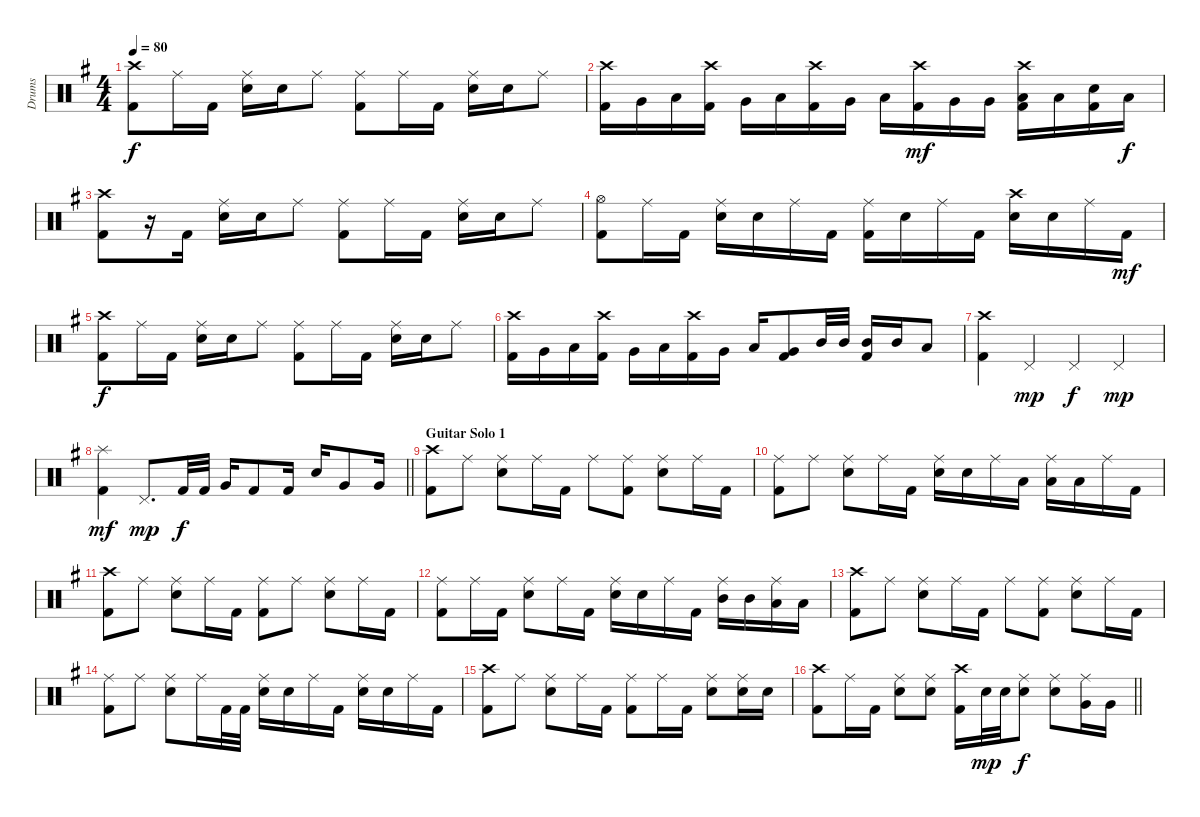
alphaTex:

\track ("Drums" "Drums") {instrument percussion}
\staff {score}
\articulation defaults
\ts (4 4)
\tempo 80
\clef neutral
\ks g
("Crash high (hit)" "Kick (hit) 2").8{dy f} "Ride (middle)".16 "Kick (hit) 2".16 ("Ride (middle)" "Electric Snare (hit)").16 "Electric Snare (hit)".16 "Ride (middle)".8 ("Ride (middle)" "Kick (hit) 2").8 "Ride (middle)".16 "Kick (hit) 2".16 ("Ride (middle)" "Electric Snare (hit)").16 "Electric Snare (hit)".16 "Ride (middle)".8 |
("Crash high (hit)" "Kick (hit) 2").16 "Very Low Tom (hit)".16 "Low Tom (hit)".16 ("Crash high (hit)" "Kick (hit) 2").16 "Very Low Tom (hit)".16 "Low Tom (hit)".16 ("Crash high (hit)" "Kick (hit) 2").16 "Very Low Tom (hit)".16 "Low Tom (hit)".16 ("Crash high (hit)" "Kick (hit) 2").16{dy mf} "Very Low Tom (hit)".16 "Very Low Tom (hit)".16 ("Crash high (hit)" "Low Tom (hit)" "Kick (hit) 2").16 "Low Tom (hit)".16 ("Electric Snare (hit)" "Kick (hit) 2").16 "Low Tom (hit)".16{dy f} |
("Crash high (hit)" "Kick (hit) 2").8 r.16 "Kick (hit) 2".16 ("Ride (middle)" "Electric Snare (hit)").16 "Electric Snare (hit)".16 "Ride (middle)".8 ("Ride (middle)" "Kick (hit) 2").8 "Ride (middle)".16 "Kick (hit) 2".16 ("Ride (middle)" "Electric Snare (hit)").16 "Electric Snare (hit)".16 "Ride (middle)".8 |
("Hi-Hat (open)" "Kick (hit) 2").8 "Ride (middle)".16 "Kick (hit) 2".16 ("Ride (middle)" "Electric Snare (hit)").16 "Electric Snare (hit)".16 "Ride (middle)".16 "Kick (hit) 2".16 ("Ride (middle)" "Kick (hit) 2").16 "Electric Snare (hit)".16 "Ride (middle)".16 "Kick (hit) 2".16 ("Crash high (hit)" "Electric Snare (hit)").16 "Electric Snare (hit)".16 "Ride (middle)".16 "Kick (hit) 2".16{dy mf} |
("Crash high (hit)" "Kick (hit) 2").8{dy f} "Ride (middle)".16 "Kick (hit) 2".16 ("Ride (middle)" "Electric Snare (hit)").16 "Electric Snare (hit)".16 "Ride (middle)".8 ("Ride (middle)" "Kick (hit) 2").8 "Ride (middle)".16 "Kick (hit) 2".16 ("Ride (middle)" "Electric Snare (hit)").16 "Electric Snare (hit)".16 "Ride (middle)".8 |
("Crash high (hit)" "Kick (hit) 2").16 "Very Low Tom (hit)".16 "Low Tom (hit)".16 ("Crash high (hit)" "Kick (hit) 2").16 "Very Low Tom (hit)".16 "Low Tom (hit)".16 ("Crash high (hit)" "Kick (hit) 2").16 "Very Low Tom (hit)".16 "Low Tom (hit)".16 ("Very Low Tom (hit)" "Kick (hit) 2").8 "Mid Tom (hit)".32 "Mid Tom (hit)".32 ("Mid Tom (hit)" "Kick (hit) 2").16 "Mid Tom (hit)".16 "Low Tom (hit)".8 |
("Crash high (hit)" "Kick (hit) 2").4 "Pedal Hi-Hat (hit)".4{dy mp} "Pedal Hi-Hat (hit)".4{dy f} "Pedal Hi-Hat (hit)".4{dy mp} |
\barLineRight lightlight
("Splash (hit)" "Kick (hit) 2").4{dy mf} "Pedal Hi-Hat (hit)".8{d dy mp} "Kick (hit) 2".32{dy f} "Kick (hit) 2".32 "Very Low Tom (hit)".16 "Kick (hit) 2".8 "Kick (hit) 2".16 "Electric Snare (hit)".16 "Very Low Tom (hit)".8 "Very Low Tom (hit)".16 |
\section ("" "Guitar Solo 1")
("Crash high (hit)" "Kick (hit) 2").8 "Ride (middle)".8 ("Ride (middle)" "Electric Snare (hit)").8 "Ride (middle)".16 "Kick (hit) 2".16 "Ride (middle)".8 ("Ride (middle)" "Kick (hit) 2").8 ("Ride (middle)" "Electric Snare (hit)").8 "Ride (middle)".16 "Kick (hit) 2".16 |
("Ride (middle)" "Kick (hit) 2").8 "Ride (middle)".8 ("Ride (middle)" "Electric Snare (hit)").8 "Ride (middle)".16 "Kick (hit) 2".16 ("Ride (middle)" "Electric Snare (hit)").16 "Electric Snare (hit)".16 "Ride (middle)".16 "Low Tom (hit)".16 ("Ride (middle)" "Low Tom (hit)").16 "Low Tom (hit)".16 "Ride (middle)".16 "Kick (hit) 2".16 |
("Crash high (hit)" "Kick (hit) 2").8 "Ride (middle)".8 ("Ride (middle)" "Electric Snare (hit)").8 "Ride (middle)".16 "Kick (hit) 2".16 ("Ride (middle)" "Kick (hit) 2").8 "Ride (middle)".8 ("Ride (middle)" "Electric Snare (hit)").8 "Ride (middle)".16 "Kick (hit) 2".16 |
("Ride (middle)" "Kick (hit) 2").8 "Ride (middle)".16 "Kick (hit) 2".16 ("Ride (middle)" "Electric Snare (hit)").8 "Ride (middle)".16 "Kick (hit) 2".16 ("Ride (middle)" "Electric Snare (hit)").16 "Electric Snare (hit)".16 "Ride (middle)".16 "Kick (hit) 2".16 ("Ride (middle)" "Mid Tom (hit)").16 "Mid Tom (hit)".16 ("Ride (middle)" "Low Tom (hit)").16 "Low Tom (hit)".16 |
("Crash high (hit)" "Kick (hit) 2").8 "Ride (middle)".8 ("Ride (middle)" "Electric Snare (hit)").8 "Ride (middle)".16 "Kick (hit) 2".16 "Ride (middle)".8 ("Ride (middle)" "Kick (hit) 2").8 ("Ride (middle)" "Electric Snare (hit)").8 "Ride (middle)".16 "Kick (hit) 2".16 |
("Ride (middle)" "Kick (hit) 2").8 "Ride (middle)".8 ("Ride (middle)" "Electric Snare (hit)").8 "Ride (middle)".16 "Kick (hit) 2".32 "Kick (hit) 2".32 ("Ride (middle)" "Electric Snare (hit)").16 "Electric Snare (hit)".16 "Ride (middle)".16 "Kick (hit) 2".16 ("Ride (middle)" "Electric Snare (hit)").16 "Electric Snare (hit)".16 "Ride (middle)".16 "Kick (hit) 2".16 |
("Crash high (hit)" "Kick (hit) 2").8 "Ride (middle)".8 ("Ride (middle)" "Electric Snare (hit)").8 "Ride (middle)".16 "Kick (hit) 2".16 ("Ride (middle)" "Kick (hit) 2").8 "Ride (middle)".16 "Kick (hit) 2".16 ("Ride (middle)" "Electric Snare (hit)").8 ("Ride (middle)" "Electric Snare (hit)").16 "Electric Snare (hit)".16 |
\barLineRight lightlight
("Crash high (hit)" "Kick (hit) 2").8 "Ride (middle)".16 "Kick (hit) 2".16 ("Ride (middle)" "Electric Snare (hit)").8 ("Ride (middle)" "Electric Snare (hit)").8 ("Crash high (hit)" "Kick (hit) 2").16 "Electric Snare (hit)".32{dy mp} "Electric Snare (hit)".32 ("Ride (middle)" "Electric Snare (hit)").8{dy f} ("Ride (middle)" "Electric Snare (hit)").8 ("Ride (middle)" "Very Low Tom (hit)").16 "Very Low Tom (hit)".16
